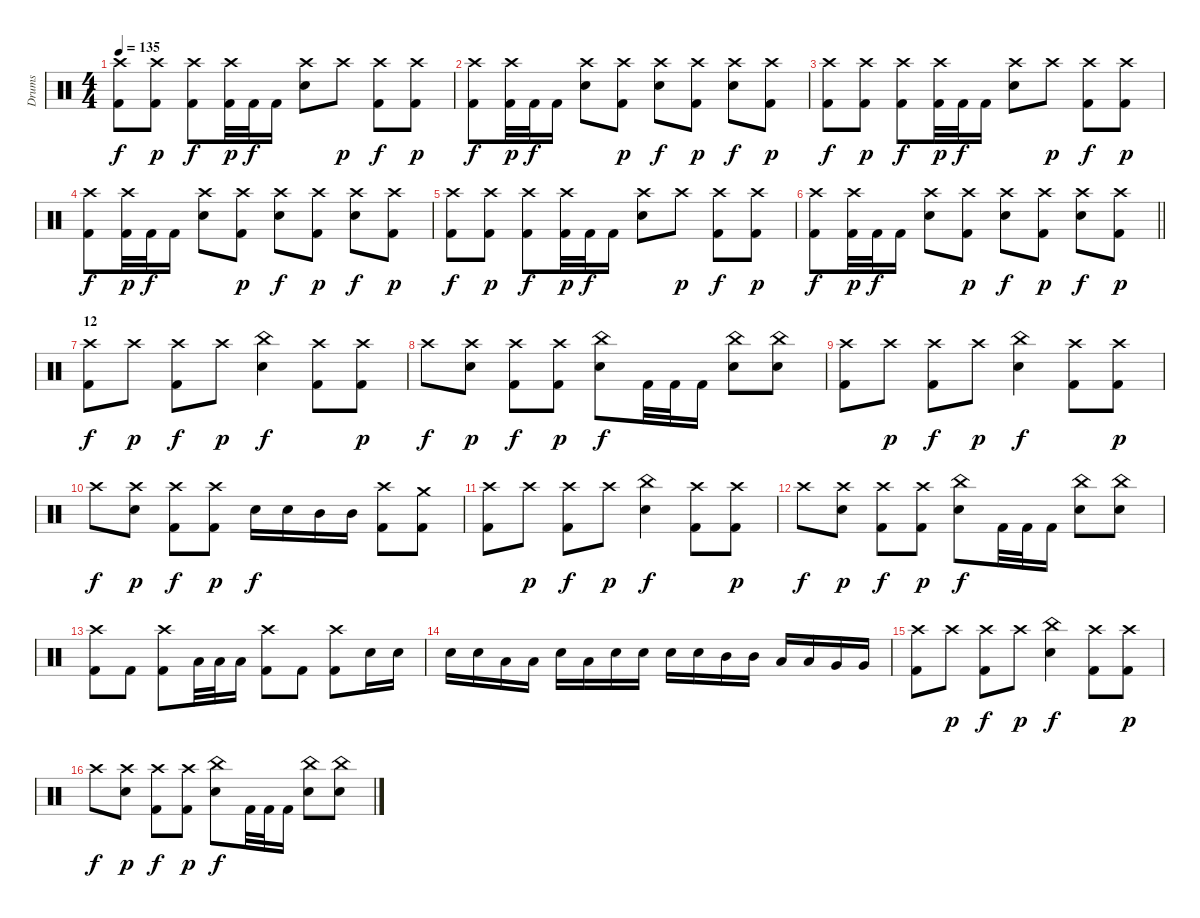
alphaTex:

\track ("Drums" "Drums") {instrument percussion}
\staff {score}
\articulation defaults
\ts (4 4)
\tempo 135
\clef neutral
\ks c
("Crash high (hit)" "Kick (hit) 2").8{dy f} ("Crash high (hit)" "Kick (hit) 2").8{dy p} ("Crash high (hit)" "Kick (hit) 2").8{dy f} ("Crash high (hit)" "Kick (hit) 2").32{dy p} "Kick (hit) 2".32{dy f} "Kick (hit) 2".16 ("Crash high (hit)" "Electric Snare (hit)").8 "Crash high (hit)".8{dy p} ("Crash high (hit)" "Kick (hit) 2").8{dy f} ("Crash high (hit)" "Kick (hit) 2").8{dy p} |
("Crash high (hit)" "Kick (hit) 2").8{dy f} ("Crash high (hit)" "Kick (hit) 2").32{dy p} "Kick (hit) 2".32{dy f} "Kick (hit) 2".16 ("Crash high (hit)" "Electric Snare (hit)").8 ("Crash high (hit)" "Kick (hit) 2").8{dy p} ("Crash high (hit)" "Electric Snare (hit)").8{dy f} ("Crash high (hit)" "Kick (hit) 2").8{dy p} ("Crash high (hit)" "Electric Snare (hit)").8{dy f} ("Crash high (hit)" "Kick (hit) 2").8{dy p} |
("Crash high (hit)" "Kick (hit) 2").8{dy f} ("Crash high (hit)" "Kick (hit) 2").8{dy p} ("Crash high (hit)" "Kick (hit) 2").8{dy f} ("Crash high (hit)" "Kick (hit) 2").32{dy p} "Kick (hit) 2".32{dy f} "Kick (hit) 2".16 ("Crash high (hit)" "Electric Snare (hit)").8 "Crash high (hit)".8{dy p} ("Crash high (hit)" "Kick (hit) 2").8{dy f} ("Crash high (hit)" "Kick (hit) 2").8{dy p} |
("Crash high (hit)" "Kick (hit) 2").8{dy f} ("Crash high (hit)" "Kick (hit) 2").32{dy p} "Kick (hit) 2".32{dy f} "Kick (hit) 2".16 ("Crash high (hit)" "Electric Snare (hit)").8 ("Crash high (hit)" "Kick (hit) 2").8{dy p} ("Crash high (hit)" "Electric Snare (hit)").8{dy f} ("Crash high (hit)" "Kick (hit) 2").8{dy p} ("Crash high (hit)" "Electric Snare (hit)").8{dy f} ("Crash high (hit)" "Kick (hit) 2").8{dy p} |
("Crash high (hit)" "Kick (hit) 2").8{dy f} ("Crash high (hit)" "Kick (hit) 2").8{dy p} ("Crash high (hit)" "Kick (hit) 2").8{dy f} ("Crash high (hit)" "Kick (hit) 2").32{dy p} "Kick (hit) 2".32{dy f} "Kick (hit) 2".16 ("Crash high (hit)" "Electric Snare (hit)").8 "Crash high (hit)".8{dy p} ("Crash high (hit)" "Kick (hit) 2").8{dy f} ("Crash high (hit)" "Kick (hit) 2").8{dy p} |
\barLineRight lightlight
("Crash high (hit)" "Kick (hit) 2").8{dy f} ("Crash high (hit)" "Kick (hit) 2").32{dy p} "Kick (hit) 2".32{dy f} "Kick (hit) 2".16 ("Crash high (hit)" "Electric Snare (hit)").8 ("Crash high (hit)" "Kick (hit) 2").8{dy p} ("Crash high (hit)" "Electric Snare (hit)").8{dy f} ("Crash high (hit)" "Kick (hit) 2").8{dy p} ("Crash high (hit)" "Electric Snare (hit)").8{dy f} ("Crash high (hit)" "Kick (hit) 2").8{dy p} |
\section ("" "12")
("Crash high (hit)" "Kick (hit) 2").8{dy f} "Crash high (hit)".8{dy p} ("Crash high (hit)" "Kick (hit) 2").8{dy f} "Crash high (hit)".8{dy p} ("China (hit)" "Electric Snare (hit)").4{dy f} ("Crash high (hit)" "Kick (hit) 2").8 ("Crash high (hit)" "Kick (hit) 2").8{dy p} |
"Crash high (hit)".8{dy f} ("Crash high (hit)" "Electric Snare (hit)").8{dy p} ("Crash high (hit)" "Kick (hit) 2").8{dy f} ("Crash high (hit)" "Kick (hit) 2").8{dy p} ("China (hit)" "Electric Snare (hit)").8{dy f} "Kick (hit) 2".32 "Kick (hit) 2".32 "Kick (hit) 2".16 ("China (hit)" "Electric Snare (hit)").8 ("China (hit)" "Electric Snare (hit)").8 |
("Crash high (hit)" "Kick (hit) 2").8 "Crash high (hit)".8{dy p} ("Crash high (hit)" "Kick (hit) 2").8{dy f} "Crash high (hit)".8{dy p} ("China (hit)" "Electric Snare (hit)").4{dy f} ("Crash high (hit)" "Kick (hit) 2").8 ("Crash high (hit)" "Kick (hit) 2").8{dy p} |
"Crash high (hit)".8{dy f} ("Crash high (hit)" "Electric Snare (hit)").8{dy p} ("Crash high (hit)" "Kick (hit) 2").8{dy f} ("Crash high (hit)" "Kick (hit) 2").8{dy p} "Electric Snare (hit)".16{dy f} "Electric Snare (hit)".16 "Mid Tom (hit)".16 "Mid Tom (hit)".16 ("Crash high (hit)" "Kick (hit) 2").8 ("Crash medium (hit)" "Kick (hit) 2").8 |
("Crash high (hit)" "Kick (hit) 2").8 "Crash high (hit)".8{dy p} ("Crash high (hit)" "Kick (hit) 2").8{dy f} "Crash high (hit)".8{dy p} ("China (hit)" "Electric Snare (hit)").4{dy f} ("Crash high (hit)" "Kick (hit) 2").8 ("Crash high (hit)" "Kick (hit) 2").8{dy p} |
"Crash high (hit)".8{dy f} ("Crash high (hit)" "Electric Snare (hit)").8{dy p} ("Crash high (hit)" "Kick (hit) 2").8{dy f} ("Crash high (hit)" "Kick (hit) 2").8{dy p} ("China (hit)" "Electric Snare (hit)").8{dy f} "Kick (hit) 2".32 "Kick (hit) 2".32 "Kick (hit) 2".16 ("China (hit)" "Electric Snare (hit)").8 ("China (hit)" "Electric Snare (hit)").8 |
("Crash high (hit)" "Kick (hit) 2").8 "Kick (hit) 2".8 ("Crash high (hit)" "Kick (hit) 2").8 "Low Tom (hit)".32 "Low Tom (hit)".32 "Low Tom (hit)".16 ("Crash high (hit)" "Kick (hit) 2").8 "Kick (hit) 2".8 ("Crash high (hit)" "Kick (hit) 2").8 "Electric Snare (hit)".16 "Electric Snare (hit)".16 |
"Electric Snare (hit)".16 "Electric Snare (hit)".16 "Low Tom (hit)".16 "Low Tom (hit)".16 "Electric Snare (hit)".16 "Low Tom (hit)".16 "Electric Snare (hit)".16 "Electric Snare (hit)".16 "Electric Snare (hit)".16 "Electric Snare (hit)".16 "Mid Tom (hit)".16 "Mid Tom (hit)".16 "Low Tom (hit)".16 "Low Tom (hit)".16 "Very Low Tom (hit)".16 "Very Low Tom (hit)".16 |
("Crash high (hit)" "Kick (hit) 2").8 "Crash high (hit)".8{dy p} ("Crash high (hit)" "Kick (hit) 2").8{dy f} "Crash high (hit)".8{dy p} ("China (hit)" "Electric Snare (hit)").4{dy f} ("Crash high (hit)" "Kick (hit) 2").8 ("Crash high (hit)" "Kick (hit) 2").8{dy p} |
"Crash high (hit)".8{dy f} ("Crash high (hit)" "Electric Snare (hit)").8{dy p} ("Crash high (hit)" "Kick (hit) 2").8{dy f} ("Crash high (hit)" "Kick (hit) 2").8{dy p} ("China (hit)" "Electric Snare (hit)").8{dy f} "Kick (hit) 2".32 "Kick (hit) 2".32 "Kick (hit) 2".16 ("China (hit)" "Electric Snare (hit)").8 ("China (hit)" "Electric Snare (hit)").8
